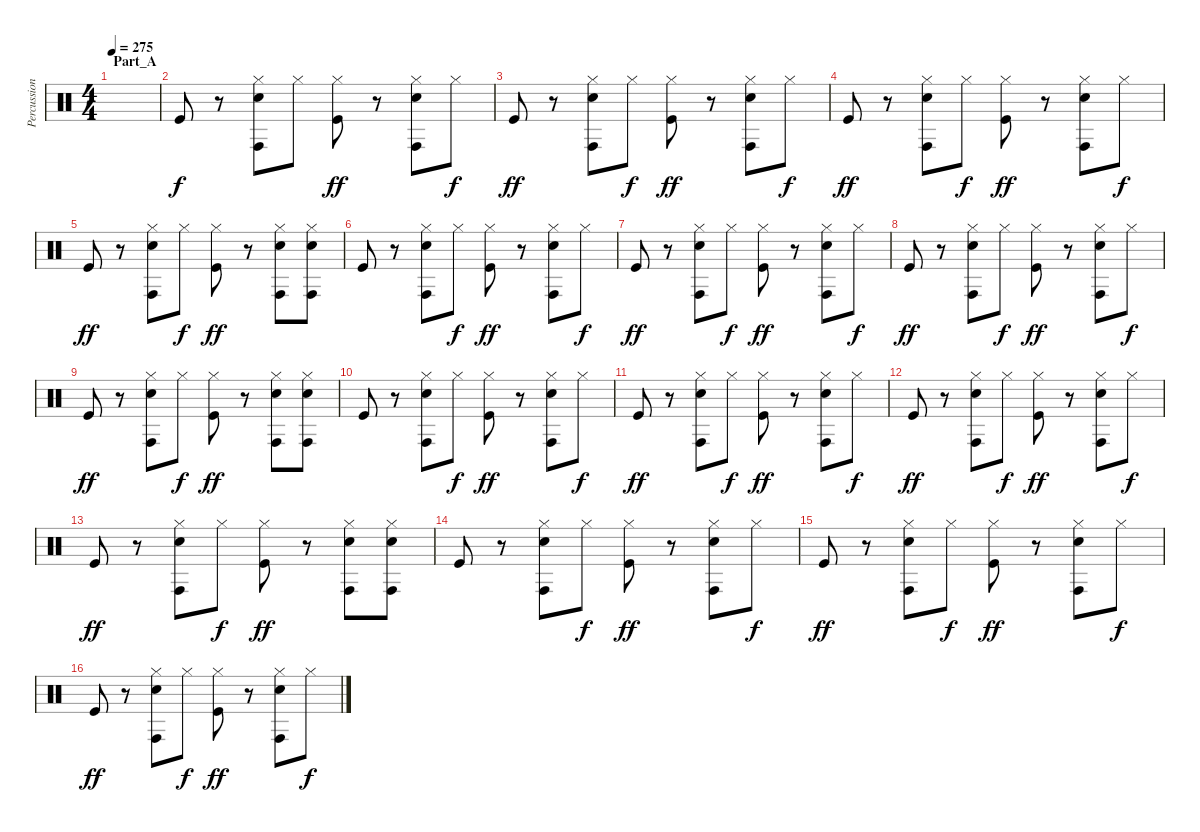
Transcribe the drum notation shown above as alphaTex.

\track ("Percussion" "Percussion") {instrument percussion}
\staff {score}
\articulation defaults
\ts (4 4)
\section ("" "Part_A")
\tempo 275
\clef neutral
\ks c
|
"Kick (hit)".8 r.8 ("Hi-Hat (closed)" "Conga high (hit)" "Electric Snare (hit)").8 "Hi-Hat (closed)".8{dy f} ("Hi-Hat (closed)" "Kick (hit)").8{dy ff} r.8 ("Hi-Hat (closed)" "Conga high (hit)" "Electric Snare (hit)").8 "Hi-Hat (closed)".8{dy f} |
"Kick (hit)".8{dy ff} r.8 ("Hi-Hat (closed)" "Conga high (hit)" "Electric Snare (hit)").8 "Hi-Hat (closed)".8{dy f} ("Hi-Hat (closed)" "Kick (hit)").8{dy ff} r.8 ("Hi-Hat (closed)" "Conga high (hit)" "Electric Snare (hit)").8 "Hi-Hat (closed)".8{dy f} |
"Kick (hit)".8{dy ff} r.8 ("Hi-Hat (closed)" "Conga high (hit)" "Electric Snare (hit)").8 "Hi-Hat (closed)".8{dy f} ("Hi-Hat (closed)" "Kick (hit)").8{dy ff} r.8 ("Hi-Hat (closed)" "Conga high (hit)" "Electric Snare (hit)").8 "Hi-Hat (closed)".8{dy f} |
"Kick (hit)".8{dy ff} r.8 ("Hi-Hat (closed)" "Conga high (hit)" "Electric Snare (hit)").8 "Hi-Hat (closed)".8{dy f} ("Hi-Hat (closed)" "Kick (hit)").8{dy ff} r.8 ("Hi-Hat (closed)" "Conga high (hit)" "Electric Snare (hit)").8 ("Hi-Hat (closed)" "Conga high (hit)" "Electric Snare (hit)").8 |
"Kick (hit)".8 r.8 ("Hi-Hat (closed)" "Conga high (hit)" "Electric Snare (hit)").8 "Hi-Hat (closed)".8{dy f} ("Hi-Hat (closed)" "Kick (hit)").8{dy ff} r.8 ("Hi-Hat (closed)" "Conga high (hit)" "Electric Snare (hit)").8 "Hi-Hat (closed)".8{dy f} |
"Kick (hit)".8{dy ff} r.8 ("Hi-Hat (closed)" "Conga high (hit)" "Electric Snare (hit)").8 "Hi-Hat (closed)".8{dy f} ("Hi-Hat (closed)" "Kick (hit)").8{dy ff} r.8 ("Hi-Hat (closed)" "Conga high (hit)" "Electric Snare (hit)").8 "Hi-Hat (closed)".8{dy f} |
"Kick (hit)".8{dy ff} r.8 ("Hi-Hat (closed)" "Conga high (hit)" "Electric Snare (hit)").8 "Hi-Hat (closed)".8{dy f} ("Hi-Hat (closed)" "Kick (hit)").8{dy ff} r.8 ("Hi-Hat (closed)" "Conga high (hit)" "Electric Snare (hit)").8 "Hi-Hat (closed)".8{dy f} |
"Kick (hit)".8{dy ff} r.8 ("Hi-Hat (closed)" "Conga high (hit)" "Electric Snare (hit)").8 "Hi-Hat (closed)".8{dy f} ("Hi-Hat (closed)" "Kick (hit)").8{dy ff} r.8 ("Hi-Hat (closed)" "Conga high (hit)" "Electric Snare (hit)").8 ("Hi-Hat (closed)" "Conga high (hit)" "Electric Snare (hit)").8 |
"Kick (hit)".8 r.8 ("Hi-Hat (closed)" "Conga high (hit)" "Electric Snare (hit)").8 "Hi-Hat (closed)".8{dy f} ("Hi-Hat (closed)" "Kick (hit)").8{dy ff} r.8 ("Hi-Hat (closed)" "Conga high (hit)" "Electric Snare (hit)").8 "Hi-Hat (closed)".8{dy f} |
"Kick (hit)".8{dy ff} r.8 ("Hi-Hat (closed)" "Conga high (hit)" "Electric Snare (hit)").8 "Hi-Hat (closed)".8{dy f} ("Hi-Hat (closed)" "Kick (hit)").8{dy ff} r.8 ("Hi-Hat (closed)" "Conga high (hit)" "Electric Snare (hit)").8 "Hi-Hat (closed)".8{dy f} |
"Kick (hit)".8{dy ff} r.8 ("Hi-Hat (closed)" "Conga high (hit)" "Electric Snare (hit)").8 "Hi-Hat (closed)".8{dy f} ("Hi-Hat (closed)" "Kick (hit)").8{dy ff} r.8 ("Hi-Hat (closed)" "Conga high (hit)" "Electric Snare (hit)").8 "Hi-Hat (closed)".8{dy f} |
"Kick (hit)".8{dy ff} r.8 ("Hi-Hat (closed)" "Conga high (hit)" "Electric Snare (hit)").8 "Hi-Hat (closed)".8{dy f} ("Hi-Hat (closed)" "Kick (hit)").8{dy ff} r.8 ("Hi-Hat (closed)" "Conga high (hit)" "Electric Snare (hit)").8 ("Hi-Hat (closed)" "Conga high (hit)" "Electric Snare (hit)").8 |
"Kick (hit)".8 r.8 ("Hi-Hat (closed)" "Conga high (hit)" "Electric Snare (hit)").8 "Hi-Hat (closed)".8{dy f} ("Hi-Hat (closed)" "Kick (hit)").8{dy ff} r.8 ("Hi-Hat (closed)" "Conga high (hit)" "Electric Snare (hit)").8 "Hi-Hat (closed)".8{dy f} |
"Kick (hit)".8{dy ff} r.8 ("Hi-Hat (closed)" "Conga high (hit)" "Electric Snare (hit)").8 "Hi-Hat (closed)".8{dy f} ("Hi-Hat (closed)" "Kick (hit)").8{dy ff} r.8 ("Hi-Hat (closed)" "Conga high (hit)" "Electric Snare (hit)").8 "Hi-Hat (closed)".8{dy f} |
"Kick (hit)".8{dy ff} r.8 ("Hi-Hat (closed)" "Conga high (hit)" "Electric Snare (hit)").8 "Hi-Hat (closed)".8{dy f} ("Hi-Hat (closed)" "Kick (hit)").8{dy ff} r.8 ("Hi-Hat (closed)" "Conga high (hit)" "Electric Snare (hit)").8 "Hi-Hat (closed)".8{dy f}
